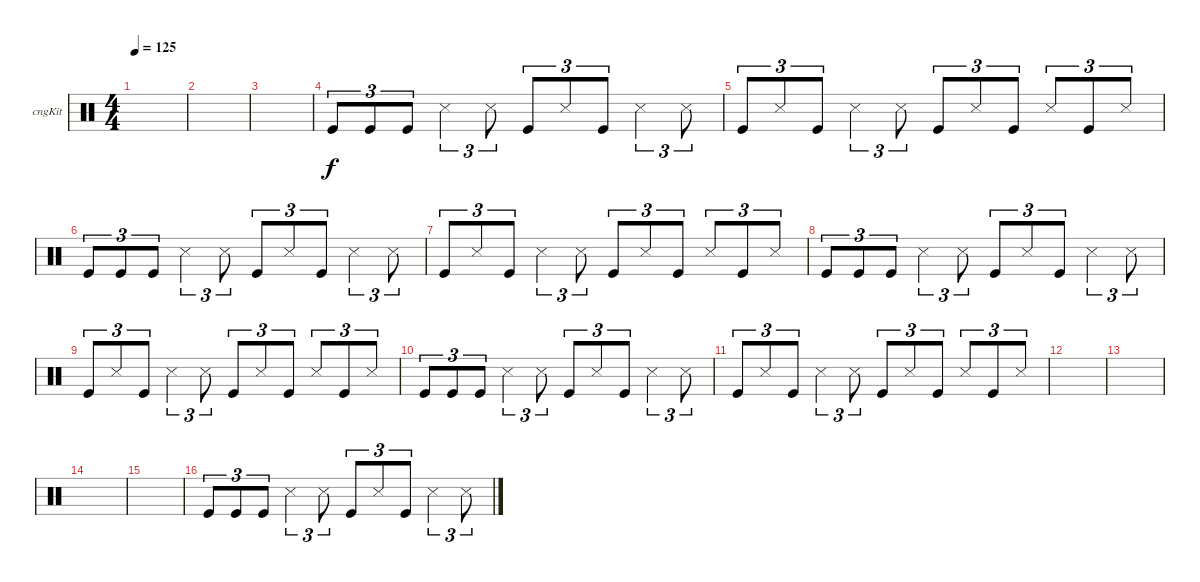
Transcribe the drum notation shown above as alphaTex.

\defaultSystemsLayout 4
\bracketExtendMode groupsimilarinstruments
\firstSystemTrackNameOrientation horizontal
\otherSystemsTrackNameOrientation horizontal
\track ("Congas" "cngKit") {instrument percussion}
\staff {score}
\articulation defaults
\ts (4 4)
\tempo 125
\clef neutral
\scale
0.333333
\ks c
|
\scale
0.333333 |
\scale
0.333333 |
\scale
0.333333 "Kick (hit)".8{tu (3 2)} "Kick (hit)".8{tu (3 2)} "Kick (hit)".8{tu (3 2)} "Snare (side stick) 3".4{tu (3 2)} "Snare (side stick) 3".8{tu (3 2)} "Kick (hit)".8{tu (3 2)} "Snare (side stick) 3".8{tu (3 2)} "Kick (hit)".8{tu (3 2)} "Snare (side stick) 3".4{tu (3 2)} "Snare (side stick) 3".8{tu (3 2)} |
\scale
0.333333 "Kick (hit)".8{tu (3 2)} "Snare (side stick) 3".8{tu (3 2)} "Kick (hit)".8{tu (3 2)} "Snare (side stick) 3".4{tu (3 2)} "Snare (side stick) 3".8{tu (3 2)} "Kick (hit)".8{tu (3 2)} "Snare (side stick) 3".8{tu (3 2)} "Kick (hit)".8{tu (3 2)} "Snare (side stick) 3".8{tu (3 2)} "Kick (hit)".8{tu (3 2)} "Snare (side stick) 3".8{tu (3 2)} |
\scale
0.333333 "Kick (hit)".8{tu (3 2)} "Kick (hit)".8{tu (3 2)} "Kick (hit)".8{tu (3 2)} "Snare (side stick) 3".4{tu (3 2)} "Snare (side stick) 3".8{tu (3 2)} "Kick (hit)".8{tu (3 2)} "Snare (side stick) 3".8{tu (3 2)} "Kick (hit)".8{tu (3 2)} "Snare (side stick) 3".4{tu (3 2)} "Snare (side stick) 3".8{tu (3 2)} |
\scale
0.333333 "Kick (hit)".8{tu (3 2)} "Snare (side stick) 3".8{tu (3 2)} "Kick (hit)".8{tu (3 2)} "Snare (side stick) 3".4{tu (3 2)} "Snare (side stick) 3".8{tu (3 2)} "Kick (hit)".8{tu (3 2)} "Snare (side stick) 3".8{tu (3 2)} "Kick (hit)".8{tu (3 2)} "Snare (side stick) 3".8{tu (3 2)} "Kick (hit)".8{tu (3 2)} "Snare (side stick) 3".8{tu (3 2)} |
\scale
0.333333 "Kick (hit)".8{tu (3 2)} "Kick (hit)".8{tu (3 2)} "Kick (hit)".8{tu (3 2)} "Snare (side stick) 3".4{tu (3 2)} "Snare (side stick) 3".8{tu (3 2)} "Kick (hit)".8{tu (3 2)} "Snare (side stick) 3".8{tu (3 2)} "Kick (hit)".8{tu (3 2)} "Snare (side stick) 3".4{tu (3 2)} "Snare (side stick) 3".8{tu (3 2)} |
\scale
0.333333 "Kick (hit)".8{tu (3 2)} "Snare (side stick) 3".8{tu (3 2)} "Kick (hit)".8{tu (3 2)} "Snare (side stick) 3".4{tu (3 2)} "Snare (side stick) 3".8{tu (3 2)} "Kick (hit)".8{tu (3 2)} "Snare (side stick) 3".8{tu (3 2)} "Kick (hit)".8{tu (3 2)} "Snare (side stick) 3".8{tu (3 2)} "Kick (hit)".8{tu (3 2)} "Snare (side stick) 3".8{tu (3 2)} |
\scale
0.333333 "Kick (hit)".8{tu (3 2)} "Kick (hit)".8{tu (3 2)} "Kick (hit)".8{tu (3 2)} "Snare (side stick) 3".4{tu (3 2)} "Snare (side stick) 3".8{tu (3 2)} "Kick (hit)".8{tu (3 2)} "Snare (side stick) 3".8{tu (3 2)} "Kick (hit)".8{tu (3 2)} "Snare (side stick) 3".4{tu (3 2)} "Snare (side stick) 3".8{tu (3 2)} |
\scale
0.333333 "Kick (hit)".8{tu (3 2)} "Snare (side stick) 3".8{tu (3 2)} "Kick (hit)".8{tu (3 2)} "Snare (side stick) 3".4{tu (3 2)} "Snare (side stick) 3".8{tu (3 2)} "Kick (hit)".8{tu (3 2)} "Snare (side stick) 3".8{tu (3 2)} "Kick (hit)".8{tu (3 2)} "Snare (side stick) 3".8{tu (3 2)} "Kick (hit)".8{tu (3 2)} "Snare (side stick) 3".8{tu (3 2)} |
\scale
0.333333 |
\scale
0.333333 |
\scale
0.333333 |
\scale
0.333333 |
\scale
0.333333 "Kick (hit)".8{tu (3 2)} "Kick (hit)".8{tu (3 2)} "Kick (hit)".8{tu (3 2)} "Snare (side stick) 3".4{tu (3 2)} "Snare (side stick) 3".8{tu (3 2)} "Kick (hit)".8{tu (3 2)} "Snare (side stick) 3".8{tu (3 2)} "Kick (hit)".8{tu (3 2)} "Snare (side stick) 3".4{tu (3 2)} "Snare (side stick) 3".8{tu (3 2)}
